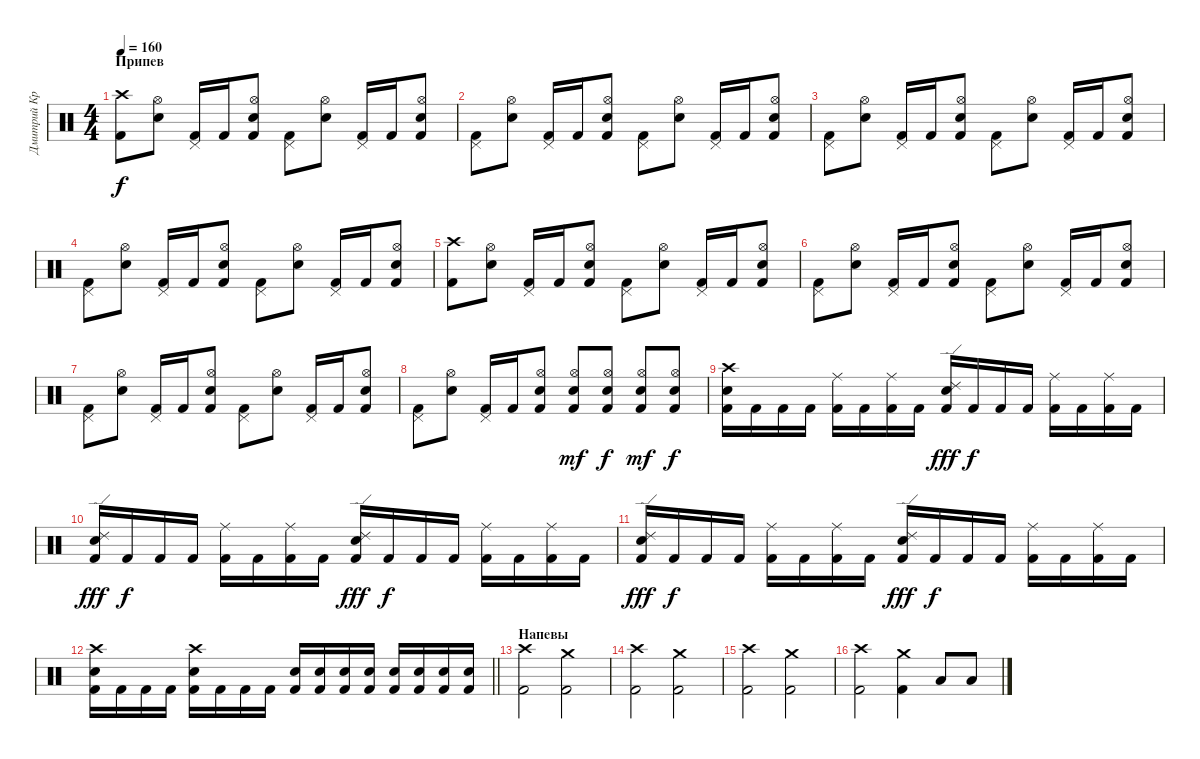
\track ("Дмитрий Кривенков" "Дмитрий Кр") {instrument percussion}
\staff {score}
\articulation defaults
\ts (4 4)
\section ("" "Припев")
\tempo 160
\clef neutral
\ks c
("Crash high (hit)" "Kick (hit) 2").8{dy f} ("Hi-Hat (open)" "Electric Snare (hit)").8 ("Pedal Hi-Hat (hit)" "Kick (hit) 2").16 "Kick (hit) 2".16 ("Hi-Hat (open)" "Electric Snare (hit)" "Kick (hit) 2").8 ("Pedal Hi-Hat (hit)" "Kick (hit) 2").8 ("Hi-Hat (open)" "Electric Snare (hit)").8 ("Pedal Hi-Hat (hit)" "Kick (hit) 2").16 "Kick (hit) 2".16 ("Hi-Hat (open)" "Electric Snare (hit)" "Kick (hit) 2").8 |
("Pedal Hi-Hat (hit)" "Kick (hit) 2").8 ("Hi-Hat (open)" "Electric Snare (hit)").8 ("Pedal Hi-Hat (hit)" "Kick (hit) 2").16 "Kick (hit) 2".16 ("Hi-Hat (open)" "Electric Snare (hit)" "Kick (hit) 2").8 ("Pedal Hi-Hat (hit)" "Kick (hit) 2").8 ("Hi-Hat (open)" "Electric Snare (hit)").8 ("Pedal Hi-Hat (hit)" "Kick (hit) 2").16 "Kick (hit) 2".16 ("Hi-Hat (open)" "Electric Snare (hit)" "Kick (hit) 2").8 |
("Pedal Hi-Hat (hit)" "Kick (hit) 2").8 ("Hi-Hat (open)" "Electric Snare (hit)").8 ("Pedal Hi-Hat (hit)" "Kick (hit) 2").16 "Kick (hit) 2".16 ("Hi-Hat (open)" "Electric Snare (hit)" "Kick (hit) 2").8 ("Pedal Hi-Hat (hit)" "Kick (hit) 2").8 ("Hi-Hat (open)" "Electric Snare (hit)").8 ("Pedal Hi-Hat (hit)" "Kick (hit) 2").16 "Kick (hit) 2".16 ("Hi-Hat (open)" "Electric Snare (hit)" "Kick (hit) 2").8 |
("Pedal Hi-Hat (hit)" "Kick (hit) 2").8 ("Hi-Hat (open)" "Electric Snare (hit)").8 ("Pedal Hi-Hat (hit)" "Kick (hit) 2").16 "Kick (hit) 2".16 ("Hi-Hat (open)" "Electric Snare (hit)" "Kick (hit) 2").8 ("Pedal Hi-Hat (hit)" "Kick (hit) 2").8 ("Hi-Hat (open)" "Electric Snare (hit)").8 ("Pedal Hi-Hat (hit)" "Kick (hit) 2").16 "Kick (hit) 2".16 ("Hi-Hat (open)" "Electric Snare (hit)" "Kick (hit) 2").8 |
("Crash high (hit)" "Kick (hit) 2").8 ("Hi-Hat (open)" "Electric Snare (hit)").8 ("Pedal Hi-Hat (hit)" "Kick (hit) 2").16 "Kick (hit) 2".16 ("Hi-Hat (open)" "Electric Snare (hit)" "Kick (hit) 2").8 ("Pedal Hi-Hat (hit)" "Kick (hit) 2").8 ("Hi-Hat (open)" "Electric Snare (hit)").8 ("Pedal Hi-Hat (hit)" "Kick (hit) 2").16 "Kick (hit) 2".16 ("Hi-Hat (open)" "Electric Snare (hit)" "Kick (hit) 2").8 |
("Pedal Hi-Hat (hit)" "Kick (hit) 2").8 ("Hi-Hat (open)" "Electric Snare (hit)").8 ("Pedal Hi-Hat (hit)" "Kick (hit) 2").16 "Kick (hit) 2".16 ("Hi-Hat (open)" "Electric Snare (hit)" "Kick (hit) 2").8 ("Pedal Hi-Hat (hit)" "Kick (hit) 2").8 ("Hi-Hat (open)" "Electric Snare (hit)").8 ("Pedal Hi-Hat (hit)" "Kick (hit) 2").16 "Kick (hit) 2".16 ("Hi-Hat (open)" "Electric Snare (hit)" "Kick (hit) 2").8 |
("Pedal Hi-Hat (hit)" "Kick (hit) 2").8 ("Hi-Hat (open)" "Electric Snare (hit)").8 ("Pedal Hi-Hat (hit)" "Kick (hit) 2").16 "Kick (hit) 2".16 ("Hi-Hat (open)" "Electric Snare (hit)" "Kick (hit) 2").8 ("Pedal Hi-Hat (hit)" "Kick (hit) 2").8 ("Hi-Hat (open)" "Electric Snare (hit)").8 ("Pedal Hi-Hat (hit)" "Kick (hit) 2").16 "Kick (hit) 2".16 ("Hi-Hat (open)" "Electric Snare (hit)" "Kick (hit) 2").8 |
("Pedal Hi-Hat (hit)" "Kick (hit) 2").8 ("Hi-Hat (open)" "Electric Snare (hit)").8 ("Pedal Hi-Hat (hit)" "Kick (hit) 2").16 "Kick (hit) 2".16 ("Hi-Hat (open)" "Electric Snare (hit)" "Kick (hit) 2").8 ("Hi-Hat (open)" "Electric Snare (hit)" "Kick (hit) 2").8{dy mf} ("Hi-Hat (open)" "Electric Snare (hit)" "Kick (hit) 2").8{dy f} ("Hi-Hat (open)" "Electric Snare (hit)" "Kick (hit) 2").8{dy mf} ("Hi-Hat (open)" "Electric Snare (hit)" "Kick (hit) 2").8{dy f} |
("Crash high (hit)" "Electric Snare (hit)" "Kick (hit) 2").16 "Kick (hit) 2".16 "Kick (hit) 2".16 "Kick (hit) 2".16 ("Ride (middle)" "Kick (hit) 2").16 "Kick (hit) 2".16 ("Ride (middle)" "Kick (hit) 2").16 "Kick (hit) 2".16 ("Ride (edge) 2" "Electric Snare (hit)" "Kick (hit) 2").16{dy fff} "Kick (hit) 2".16{dy f} "Kick (hit) 2".16 "Kick (hit) 2".16 ("Ride (middle)" "Kick (hit) 2").16 "Kick (hit) 2".16 ("Ride (middle)" "Kick (hit) 2").16 "Kick (hit) 2".16 |
("Ride (edge) 2" "Electric Snare (hit)" "Kick (hit) 2").16{dy fff} "Kick (hit) 2".16{dy f} "Kick (hit) 2".16 "Kick (hit) 2".16 ("Ride (middle)" "Kick (hit) 2").16 "Kick (hit) 2".16 ("Ride (middle)" "Kick (hit) 2").16 "Kick (hit) 2".16 ("Ride (edge) 2" "Electric Snare (hit)" "Kick (hit) 2").16{dy fff} "Kick (hit) 2".16{dy f} "Kick (hit) 2".16 "Kick (hit) 2".16 ("Ride (middle)" "Kick (hit) 2").16 "Kick (hit) 2".16 ("Ride (middle)" "Kick (hit) 2").16 "Kick (hit) 2".16 |
("Ride (edge) 2" "Electric Snare (hit)" "Kick (hit) 2").16{dy fff} "Kick (hit) 2".16{dy f} "Kick (hit) 2".16 "Kick (hit) 2".16 ("Ride (middle)" "Kick (hit) 2").16 "Kick (hit) 2".16 ("Ride (middle)" "Kick (hit) 2").16 "Kick (hit) 2".16 ("Ride (edge) 2" "Electric Snare (hit)" "Kick (hit) 2").16{dy fff} "Kick (hit) 2".16{dy f} "Kick (hit) 2".16 "Kick (hit) 2".16 ("Ride (middle)" "Kick (hit) 2").16 "Kick (hit) 2".16 ("Ride (middle)" "Kick (hit) 2").16 "Kick (hit) 2".16 |
\barLineRight lightlight
("Crash high (hit)" "Electric Snare (hit)" "Kick (hit) 2").16 "Kick (hit) 2".16 "Kick (hit) 2".16 "Kick (hit) 2".16 ("Crash high (hit)" "Electric Snare (hit)" "Kick (hit) 2").16 "Kick (hit) 2".16 "Kick (hit) 2".16 "Kick (hit) 2".16 ("Electric Snare (hit)" "Kick (hit) 2").16 ("Electric Snare (hit)" "Kick (hit) 2").16 ("Electric Snare (hit)" "Kick (hit) 2").16 ("Electric Snare (hit)" "Kick (hit) 2").16 ("Electric Snare (hit)" "Kick (hit) 2").16 ("Electric Snare (hit)" "Kick (hit) 2").16 ("Electric Snare (hit)" "Kick (hit) 2").16 ("Electric Snare (hit)" "Kick (hit) 2").16 |
\section ("" "Напевы")
("Crash high (hit)" "Kick (hit) 2").2 ("Crash medium (hit)" "Kick (hit) 2").2 |
("Crash high (hit)" "Kick (hit) 2").2 ("Crash medium (hit)" "Kick (hit) 2").2 |
("Crash high (hit)" "Kick (hit) 2").2 ("Crash medium (hit)" "Kick (hit) 2").2 |
("Crash high (hit)" "Kick (hit) 2").2 ("Crash medium (hit)" "Kick (hit) 2").4 "Low Tom (hit)".8 "Low Tom (hit)".8
